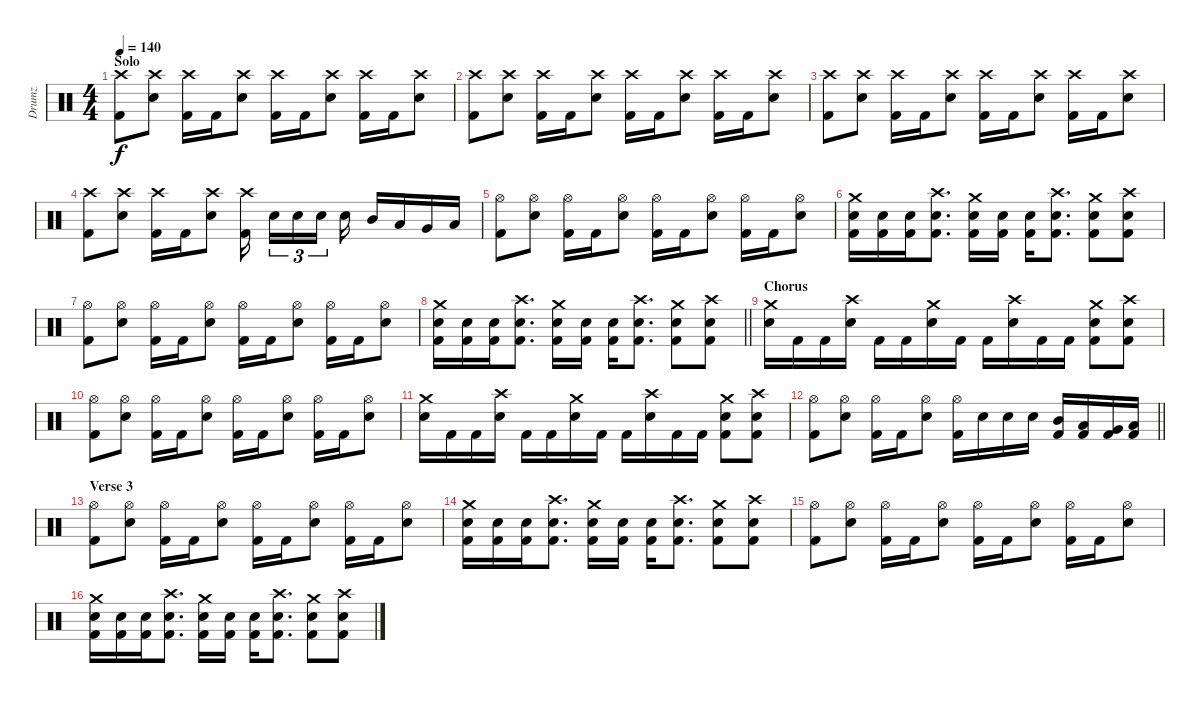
\track ("Drumz" "Drumz") {instrument percussion}
\staff {score}
\articulation defaults
\ts (4 4)
\section ("" "Solo")
\tempo 140
\clef neutral
\ks c
("Crash high (hit)" "Kick (hit) 2").8{dy f} ("Crash high (hit)" "Electric Snare (hit)").8 ("Crash high (hit)" "Kick (hit) 2").16 "Kick (hit) 2".16 ("Crash high (hit)" "Electric Snare (hit)").8 ("Crash high (hit)" "Kick (hit) 2").16 "Kick (hit) 2".16 ("Crash high (hit)" "Electric Snare (hit)").8 ("Crash high (hit)" "Kick (hit) 2").16 "Kick (hit) 2".16 ("Crash high (hit)" "Electric Snare (hit)").8 |
("Crash high (hit)" "Kick (hit) 2").8 ("Crash high (hit)" "Electric Snare (hit)").8 ("Crash high (hit)" "Kick (hit) 2").16 "Kick (hit) 2".16 ("Crash high (hit)" "Electric Snare (hit)").8 ("Crash high (hit)" "Kick (hit) 2").16 "Kick (hit) 2".16 ("Crash high (hit)" "Electric Snare (hit)").8 ("Crash high (hit)" "Kick (hit) 2").16 "Kick (hit) 2".16 ("Crash high (hit)" "Electric Snare (hit)").8 |
("Crash high (hit)" "Kick (hit) 2").8 ("Crash high (hit)" "Electric Snare (hit)").8 ("Crash high (hit)" "Kick (hit) 2").16 "Kick (hit) 2".16 ("Crash high (hit)" "Electric Snare (hit)").8 ("Crash high (hit)" "Kick (hit) 2").16 "Kick (hit) 2".16 ("Crash high (hit)" "Electric Snare (hit)").8 ("Crash high (hit)" "Kick (hit) 2").16 "Kick (hit) 2".16 ("Crash high (hit)" "Electric Snare (hit)").8 |
("Crash high (hit)" "Kick (hit) 2").8 ("Crash high (hit)" "Electric Snare (hit)").8 ("Crash high (hit)" "Kick (hit) 2").16 "Kick (hit) 2".16 ("Crash high (hit)" "Electric Snare (hit)").8 ("Crash high (hit)" "Kick (hit) 2").16{beam splitsecondary} "Electric Snare (hit)".16{tu (3 2)} "Electric Snare (hit)".16{tu (3 2)} "Electric Snare (hit)".16{tu (3 2) beam splitsecondary} "Electric Snare (hit)".16 "Mid Tom (hit)".16 "Low Tom (hit)".16 "Very Low Tom (hit)".16 "Low Floor Tom (hit)".16 |
("Hi-Hat (open)" "Kick (hit) 2").8 ("Hi-Hat (open)" "Electric Snare (hit)").8 ("Hi-Hat (open)" "Kick (hit) 2").16 "Kick (hit) 2".16 ("Hi-Hat (open)" "Electric Snare (hit)").8 ("Hi-Hat (open)" "Kick (hit) 2").16 "Kick (hit) 2".16 ("Hi-Hat (open)" "Electric Snare (hit)").8 ("Hi-Hat (open)" "Kick (hit) 2").16 "Kick (hit) 2".16 ("Hi-Hat (open)" "Electric Snare (hit)").8 |
("Crash medium (hit)" "Electric Snare (hit)" "Kick (hit) 2").16 ("Electric Snare (hit)" "Kick (hit) 2").16 ("Electric Snare (hit)" "Kick (hit) 2").16 ("Crash high (hit)" "Electric Snare (hit)" "Kick (hit) 2").8{d} ("Crash medium (hit)" "Electric Snare (hit)" "Kick (hit) 2").16 ("Electric Snare (hit)" "Kick (hit) 2").16 ("Electric Snare (hit)" "Kick (hit) 2").16 ("Crash high (hit)" "Electric Snare (hit)" "Kick (hit) 2").8{d} ("Crash medium (hit)" "Electric Snare (hit)" "Kick (hit) 2").8 ("Crash high (hit)" "Electric Snare (hit)" "Kick (hit) 2").8 |
("Hi-Hat (open)" "Kick (hit) 2").8 ("Hi-Hat (open)" "Electric Snare (hit)").8 ("Hi-Hat (open)" "Kick (hit) 2").16 "Kick (hit) 2".16 ("Hi-Hat (open)" "Electric Snare (hit)").8 ("Hi-Hat (open)" "Kick (hit) 2").16 "Kick (hit) 2".16 ("Hi-Hat (open)" "Electric Snare (hit)").8 ("Hi-Hat (open)" "Kick (hit) 2").16 "Kick (hit) 2".16 ("Hi-Hat (open)" "Electric Snare (hit)").8 |
\barLineRight lightlight
("Crash medium (hit)" "Electric Snare (hit)" "Kick (hit) 2").16 ("Electric Snare (hit)" "Kick (hit) 2").16 ("Electric Snare (hit)" "Kick (hit) 2").16 ("Crash high (hit)" "Electric Snare (hit)" "Kick (hit) 2").8{d} ("Crash medium (hit)" "Electric Snare (hit)" "Kick (hit) 2").16 ("Electric Snare (hit)" "Kick (hit) 2").16 ("Electric Snare (hit)" "Kick (hit) 2").16 ("Crash high (hit)" "Electric Snare (hit)" "Kick (hit) 2").8{d} ("Crash medium (hit)" "Electric Snare (hit)" "Kick (hit) 2").8 ("Crash high (hit)" "Electric Snare (hit)" "Kick (hit) 2").8 |
\section ("" "Chorus")
("Crash medium (hit)" "Electric Snare (hit)").16 "Kick (hit) 2".16 "Kick (hit) 2".16 ("Crash high (hit)" "Electric Snare (hit)").16 "Kick (hit) 2".16 "Kick (hit) 2".16 ("Crash medium (hit)" "Electric Snare (hit)").16 "Kick (hit) 2".16 "Kick (hit) 2".16 ("Crash high (hit)" "Electric Snare (hit)").16 "Kick (hit) 2".16 "Kick (hit) 2".16 ("Crash medium (hit)" "Electric Snare (hit)" "Kick (hit) 2").8 ("Crash high (hit)" "Electric Snare (hit)" "Kick (hit) 2").8 |
("Hi-Hat (open)" "Kick (hit) 2").8 ("Hi-Hat (open)" "Electric Snare (hit)").8 ("Hi-Hat (open)" "Kick (hit) 2").16 "Kick (hit) 2".16 ("Hi-Hat (open)" "Electric Snare (hit)").8 ("Hi-Hat (open)" "Kick (hit) 2").16 "Kick (hit) 2".16 ("Hi-Hat (open)" "Electric Snare (hit)").8 ("Hi-Hat (open)" "Kick (hit) 2").16 "Kick (hit) 2".16 ("Hi-Hat (open)" "Electric Snare (hit)").8 |
("Crash medium (hit)" "Electric Snare (hit)").16 "Kick (hit) 2".16 "Kick (hit) 2".16 ("Crash high (hit)" "Electric Snare (hit)").16 "Kick (hit) 2".16 "Kick (hit) 2".16 ("Crash medium (hit)" "Electric Snare (hit)").16 "Kick (hit) 2".16 "Kick (hit) 2".16 ("Crash high (hit)" "Electric Snare (hit)").16 "Kick (hit) 2".16 "Kick (hit) 2".16 ("Crash medium (hit)" "Electric Snare (hit)" "Kick (hit) 2").8 ("Crash high (hit)" "Electric Snare (hit)" "Kick (hit) 2").8 |
\barLineRight lightlight
("Hi-Hat (open)" "Kick (hit) 2").8 ("Hi-Hat (open)" "Electric Snare (hit)").8 ("Hi-Hat (open)" "Kick (hit) 2").16 "Kick (hit) 2".16 ("Hi-Hat (open)" "Electric Snare (hit)").8 ("Hi-Hat (open)" "Kick (hit) 2").16 "Electric Snare (hit)".16 "Electric Snare (hit)".16 "Electric Snare (hit)".16 ("Mid Tom (hit)" "Kick (hit) 2").16 ("Low Tom (hit)" "Kick (hit) 2").16 ("Very Low Tom (hit)" "Kick (hit) 2").16 ("Low Floor Tom (hit)" "Kick (hit) 2").16 |
\section ("" "Verse 3")
("Hi-Hat (open)" "Kick (hit) 2").8 ("Hi-Hat (open)" "Electric Snare (hit)").8 ("Hi-Hat (open)" "Kick (hit) 2").16 "Kick (hit) 2".16 ("Hi-Hat (open)" "Electric Snare (hit)").8 ("Hi-Hat (open)" "Kick (hit) 2").16 "Kick (hit) 2".16 ("Hi-Hat (open)" "Electric Snare (hit)").8 ("Hi-Hat (open)" "Kick (hit) 2").16 "Kick (hit) 2".16 ("Hi-Hat (open)" "Electric Snare (hit)").8 |
("Crash medium (hit)" "Electric Snare (hit)" "Kick (hit) 2").16 ("Electric Snare (hit)" "Kick (hit) 2").16 ("Electric Snare (hit)" "Kick (hit) 2").16 ("Crash high (hit)" "Electric Snare (hit)" "Kick (hit) 2").8{d} ("Crash medium (hit)" "Electric Snare (hit)" "Kick (hit) 2").16 ("Electric Snare (hit)" "Kick (hit) 2").16 ("Electric Snare (hit)" "Kick (hit) 2").16 ("Crash high (hit)" "Electric Snare (hit)" "Kick (hit) 2").8{d} ("Crash medium (hit)" "Electric Snare (hit)" "Kick (hit) 2").8 ("Crash high (hit)" "Electric Snare (hit)" "Kick (hit) 2").8 |
("Hi-Hat (open)" "Kick (hit) 2").8 ("Hi-Hat (open)" "Electric Snare (hit)").8 ("Hi-Hat (open)" "Kick (hit) 2").16 "Kick (hit) 2".16 ("Hi-Hat (open)" "Electric Snare (hit)").8 ("Hi-Hat (open)" "Kick (hit) 2").16 "Kick (hit) 2".16 ("Hi-Hat (open)" "Electric Snare (hit)").8 ("Hi-Hat (open)" "Kick (hit) 2").16 "Kick (hit) 2".16 ("Hi-Hat (open)" "Electric Snare (hit)").8 |
("Crash medium (hit)" "Electric Snare (hit)" "Kick (hit) 2").16 ("Electric Snare (hit)" "Kick (hit) 2").16 ("Electric Snare (hit)" "Kick (hit) 2").16 ("Crash high (hit)" "Electric Snare (hit)" "Kick (hit) 2").8{d} ("Crash medium (hit)" "Electric Snare (hit)" "Kick (hit) 2").16 ("Electric Snare (hit)" "Kick (hit) 2").16 ("Electric Snare (hit)" "Kick (hit) 2").16 ("Crash high (hit)" "Electric Snare (hit)" "Kick (hit) 2").8{d} ("Crash medium (hit)" "Electric Snare (hit)" "Kick (hit) 2").8 ("Crash high (hit)" "Electric Snare (hit)" "Kick (hit) 2").8
